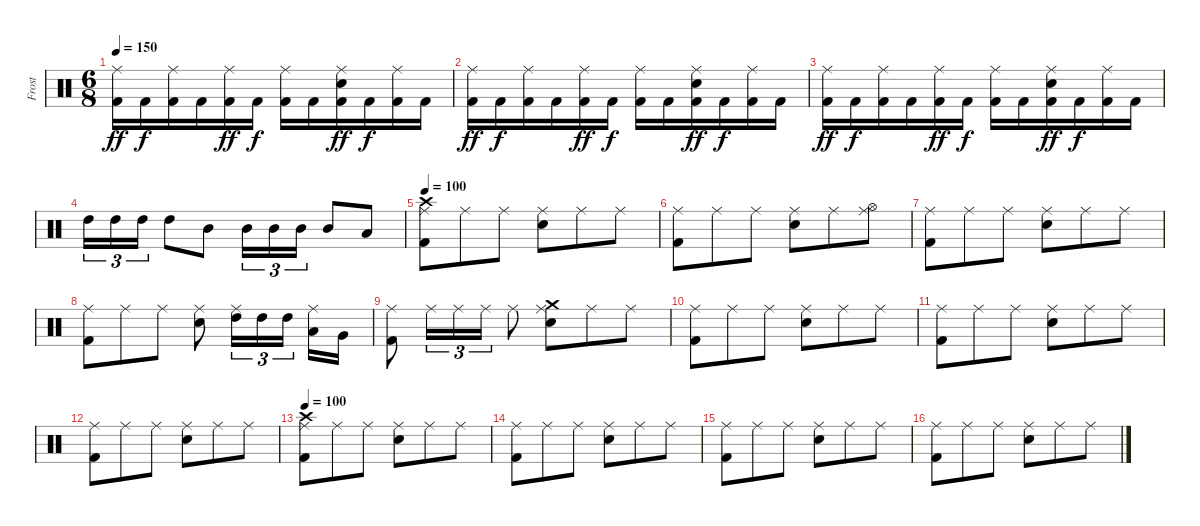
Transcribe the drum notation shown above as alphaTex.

\track ("Frost" "Frost") {instrument percussion}
\staff {score}
\articulation defaults
\ts (6 8)
\tempo 150
\clef neutral
\ks c
("Kick (hit) 2" "Ride (middle)").16{dy ff} "Kick (hit) 2".16{dy f} ("Kick (hit) 2" "Ride (middle)").16 "Kick (hit) 2".16 ("Kick (hit) 2" "Ride (middle)").16{dy ff} "Kick (hit) 2".16{dy f} ("Kick (hit) 2" "Ride (middle)").16 "Kick (hit) 2".16 ("Kick (hit) 2" "Snare (hit) 2" "Ride (middle)").16{dy ff} "Kick (hit) 2".16{dy f} ("Kick (hit) 2" "Ride (middle)").16 "Kick (hit) 2".16 |
("Kick (hit) 2" "Ride (middle)").16{dy ff} "Kick (hit) 2".16{dy f} ("Kick (hit) 2" "Ride (middle)").16 "Kick (hit) 2".16 ("Kick (hit) 2" "Ride (middle)").16{dy ff} "Kick (hit) 2".16{dy f} ("Kick (hit) 2" "Ride (middle)").16 "Kick (hit) 2".16 ("Kick (hit) 2" "Snare (hit) 2" "Ride (middle)").16{dy ff} "Kick (hit) 2".16{dy f} ("Kick (hit) 2" "Ride (middle)").16 "Kick (hit) 2".16 |
("Kick (hit) 2" "Ride (middle)").16{dy ff} "Kick (hit) 2".16{dy f} ("Kick (hit) 2" "Ride (middle)").16 "Kick (hit) 2".16 ("Kick (hit) 2" "Ride (middle)").16{dy ff} "Kick (hit) 2".16{dy f} ("Kick (hit) 2" "Ride (middle)").16 "Kick (hit) 2".16 ("Kick (hit) 2" "Snare (hit) 2" "Ride (middle)").16{dy ff} "Kick (hit) 2".16{dy f} ("Kick (hit) 2" "Ride (middle)").16 "Kick (hit) 2".16 |
"High Tom (hit)".16{tu (3 2)} "High Tom (hit)".16{tu (3 2)} "High Tom (hit)".16{tu (3 2)} "High Tom (hit)".8 "Mid Tom (hit)".8 "Mid Tom (hit)".16{tu (3 2)} "Mid Tom (hit)".16{tu (3 2)} "Mid Tom (hit)".16{tu (3 2)} "Mid Tom (hit)".8 "Low Tom (hit)".8 |
\tempo 100
("Kick (hit) 2" "Crash high (hit)" "Ride (middle)").8 "Ride (middle)".8 "Ride (middle)".8 ("Snare (hit) 2" "Ride (middle)").8 "Ride (middle)".8 "Ride (middle)".8 |
("Kick (hit) 2" "Ride (middle)").8 "Ride (middle)".8 "Ride (middle)".8 ("Snare (hit) 2" "Ride (middle)").8 "Ride (middle)".8 ("Hi-Hat (open)" "Ride (middle)").8 |
("Kick (hit) 2" "Ride (middle)").8 "Ride (middle)".8 "Ride (middle)".8 ("Snare (hit) 2" "Ride (middle)").8 "Ride (middle)".8 "Ride (middle)".8 |
("Kick (hit) 2" "Ride (middle)").8 "Ride (middle)".8 "Ride (middle)".8 ("Snare (hit) 2" "Ride (middle)").8 ("High Tom (hit)" "Ride (middle)").16{tu (3 2)} "High Tom (hit)".16{tu (3 2)} "High Tom (hit)".16{tu (3 2)} ("Low Tom (hit)" "Ride (middle)").16 "Very Low Tom (hit)".16 |
("Kick (hit) 2" "Ride (middle)").8 "Ride (middle)".16{tu (3 2)} "Ride (middle)".16{tu (3 2)} "Ride (middle)".16{tu (3 2)} "Ride (middle)".8 ("Crash medium (hit)" "Snare (hit) 2" "Ride (middle)").8 "Ride (middle)".8 "Ride (middle)".8 |
("Kick (hit) 2" "Ride (middle)").8 "Ride (middle)".8 "Ride (middle)".8 ("Snare (hit) 2" "Ride (middle)").8 "Ride (middle)".8 "Ride (middle)".8 |
("Kick (hit) 2" "Ride (middle)").8 "Ride (middle)".8 "Ride (middle)".8 ("Snare (hit) 2" "Ride (middle)").8 "Ride (middle)".8 "Ride (middle)".8 |
("Kick (hit) 2" "Ride (middle)").8 "Ride (middle)".8 "Ride (middle)".8 ("Snare (hit) 2" "Ride (middle)").8 "Ride (middle)".8 "Ride (middle)".8 |
\tempo 100
("Kick (hit) 2" "Crash high (hit)" "Ride (middle)").8 "Ride (middle)".8 "Ride (middle)".8 ("Snare (hit) 2" "Ride (middle)").8 "Ride (middle)".8 "Ride (middle)".8 |
("Kick (hit) 2" "Ride (middle)").8 "Ride (middle)".8 "Ride (middle)".8 ("Snare (hit) 2" "Ride (middle)").8 "Ride (middle)".8 "Ride (middle)".8 |
("Kick (hit) 2" "Ride (middle)").8 "Ride (middle)".8 "Ride (middle)".8 ("Snare (hit) 2" "Ride (middle)").8 "Ride (middle)".8 "Ride (middle)".8 |
("Kick (hit) 2" "Ride (middle)").8 "Ride (middle)".8 "Ride (middle)".8 ("Snare (hit) 2" "Ride (middle)").8 "Ride (middle)".8 "Ride (middle)".8
